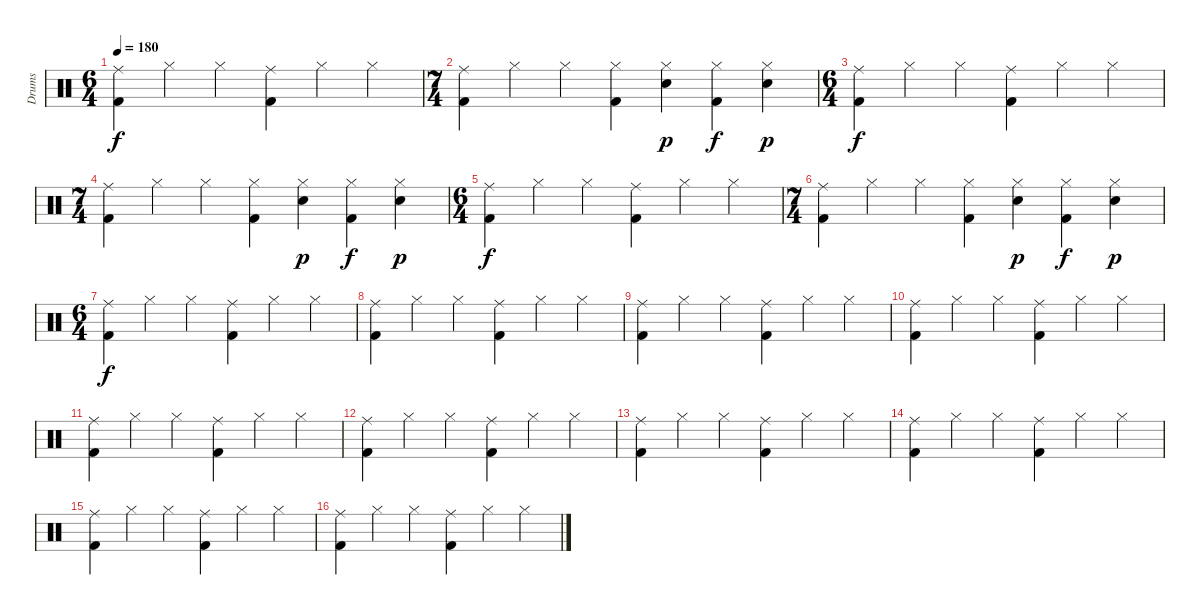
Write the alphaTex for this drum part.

\track ("Drums" "Drums") {instrument percussion}
\staff {score}
\articulation defaults
\ts (6 4)
\tempo 180
\clef neutral
\ks c
("Ride (middle)" "Kick (hit) 2").4{dy f} "Hi-Hat (closed)".4 "Hi-Hat (closed)".4 ("Ride (middle)" "Kick (hit) 2").4 "Hi-Hat (closed)".4 "Hi-Hat (closed)".4 |
\ts (7 4)
("Ride (middle)" "Kick (hit) 2").4 "Hi-Hat (closed)".4 "Hi-Hat (closed)".4 ("Hi-Hat (closed)" "Kick (hit) 2").4 ("Hi-Hat (closed)" "Electric Snare (hit)").4{dy p} ("Hi-Hat (closed)" "Kick (hit) 2").4{dy f} ("Hi-Hat (closed)" "Electric Snare (hit)").4{dy p} |
\ts (6 4)
("Ride (middle)" "Kick (hit) 2").4{dy f} "Hi-Hat (closed)".4 "Hi-Hat (closed)".4 ("Ride (middle)" "Kick (hit) 2").4 "Hi-Hat (closed)".4 "Hi-Hat (closed)".4 |
\ts (7 4)
("Ride (middle)" "Kick (hit) 2").4 "Hi-Hat (closed)".4 "Hi-Hat (closed)".4 ("Hi-Hat (closed)" "Kick (hit) 2").4 ("Hi-Hat (closed)" "Electric Snare (hit)").4{dy p} ("Hi-Hat (closed)" "Kick (hit) 2").4{dy f} ("Hi-Hat (closed)" "Electric Snare (hit)").4{dy p} |
\ts (6 4)
("Ride (middle)" "Kick (hit) 2").4{dy f} "Hi-Hat (closed)".4 "Hi-Hat (closed)".4 ("Ride (middle)" "Kick (hit) 2").4 "Hi-Hat (closed)".4 "Hi-Hat (closed)".4 |
\ts (7 4)
("Ride (middle)" "Kick (hit) 2").4 "Hi-Hat (closed)".4 "Hi-Hat (closed)".4 ("Hi-Hat (closed)" "Kick (hit) 2").4 ("Hi-Hat (closed)" "Electric Snare (hit)").4{dy p} ("Hi-Hat (closed)" "Kick (hit) 2").4{dy f} ("Hi-Hat (closed)" "Electric Snare (hit)").4{dy p} |
\ts (6 4)
("Ride (middle)" "Kick (hit) 2").4{dy f} "Hi-Hat (closed)".4 "Hi-Hat (closed)".4 ("Ride (middle)" "Kick (hit) 2").4 "Hi-Hat (closed)".4 "Hi-Hat (closed)".4 |
("Ride (middle)" "Kick (hit) 2").4 "Hi-Hat (closed)".4 "Hi-Hat (closed)".4 ("Ride (middle)" "Kick (hit) 2").4 "Hi-Hat (closed)".4 "Hi-Hat (closed)".4 |
("Ride (middle)" "Kick (hit) 2").4 "Hi-Hat (closed)".4 "Hi-Hat (closed)".4 ("Ride (middle)" "Kick (hit) 2").4 "Hi-Hat (closed)".4 "Hi-Hat (closed)".4 |
("Ride (middle)" "Kick (hit) 2").4 "Hi-Hat (closed)".4 "Hi-Hat (closed)".4 ("Ride (middle)" "Kick (hit) 2").4 "Hi-Hat (closed)".4 "Hi-Hat (closed)".4 |
("Ride (middle)" "Kick (hit) 2").4 "Hi-Hat (closed)".4 "Hi-Hat (closed)".4 ("Ride (middle)" "Kick (hit) 2").4 "Hi-Hat (closed)".4 "Hi-Hat (closed)".4 |
("Ride (middle)" "Kick (hit) 2").4 "Hi-Hat (closed)".4 "Hi-Hat (closed)".4 ("Ride (middle)" "Kick (hit) 2").4 "Hi-Hat (closed)".4 "Hi-Hat (closed)".4 |
("Ride (middle)" "Kick (hit) 2").4 "Hi-Hat (closed)".4 "Hi-Hat (closed)".4 ("Ride (middle)" "Kick (hit) 2").4 "Hi-Hat (closed)".4 "Hi-Hat (closed)".4 |
("Ride (middle)" "Kick (hit) 2").4 "Hi-Hat (closed)".4 "Hi-Hat (closed)".4 ("Ride (middle)" "Kick (hit) 2").4 "Hi-Hat (closed)".4 "Hi-Hat (closed)".4 |
("Ride (middle)" "Kick (hit) 2").4 "Hi-Hat (closed)".4 "Hi-Hat (closed)".4 ("Ride (middle)" "Kick (hit) 2").4 "Hi-Hat (closed)".4 "Hi-Hat (closed)".4 |
("Ride (middle)" "Kick (hit) 2").4 "Hi-Hat (closed)".4 "Hi-Hat (closed)".4 ("Ride (middle)" "Kick (hit) 2").4 "Hi-Hat (closed)".4 "Hi-Hat (closed)".4
